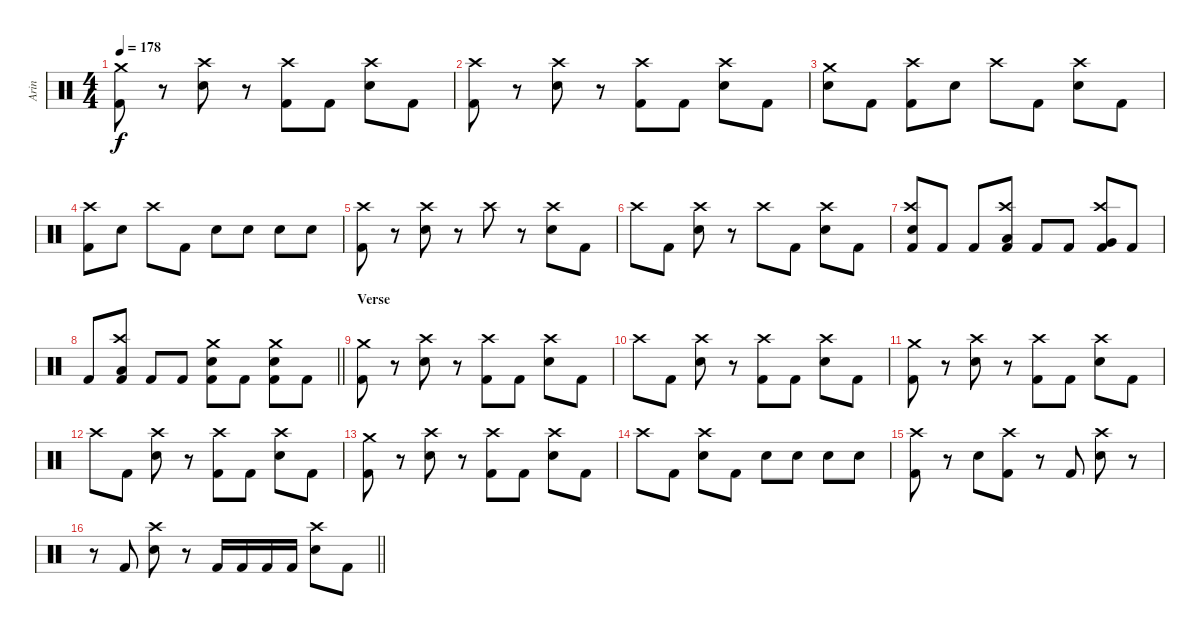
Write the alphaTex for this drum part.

\track ("Arin" "Arin") {instrument percussion}
\staff {score}
\articulation defaults
\ts (4 4)
\tempo 178
\clef neutral
\ks c
("Crash medium (hit)" "Kick (hit) 2").8{dy f} r.8 ("Crash high (hit)" "Snare (hit) 2").8 r.8 ("Crash high (hit)" "Kick (hit) 2").8 "Kick (hit) 2".8 ("Crash high (hit)" "Snare (hit) 2").8 "Kick (hit) 2".8 |
("Crash high (hit)" "Kick (hit) 2").8 r.8 ("Crash high (hit)" "Snare (hit) 2").8 r.8 ("Crash high (hit)" "Kick (hit) 2").8 "Kick (hit) 2".8 ("Crash high (hit)" "Snare (hit) 2").8 "Kick (hit) 2".8 |
("Crash medium (hit)" "Snare (hit) 2").8 "Kick (hit) 2".8 ("Crash high (hit)" "Kick (hit) 2").8 "Snare (hit) 2".8 "Crash high (hit)".8 "Kick (hit) 2".8 ("Crash high (hit)" "Snare (hit) 2").8 "Kick (hit) 2".8 |
("Crash high (hit)" "Kick (hit) 2").8 "Snare (hit) 2".8 "Crash high (hit)".8 "Kick (hit) 2".8 "Snare (hit) 2".8 "Snare (hit) 2".8 "Snare (hit) 2".8 "Snare (hit) 2".8 |
("Crash high (hit)" "Kick (hit) 2").8 r.8 ("Crash high (hit)" "Snare (hit) 2").8 r.8 "Crash high (hit)".8 r.8 ("Crash high (hit)" "Snare (hit) 2").8 "Kick (hit) 2".8 |
"Crash high (hit)".8 "Kick (hit) 2".8 ("Crash high (hit)" "Snare (hit) 2").8 r.8 "Crash high (hit)".8 "Kick (hit) 2".8 ("Crash high (hit)" "Snare (hit) 2").8 "Kick (hit) 2".8 |
("Crash high (hit)" "Snare (hit) 2" "Kick (hit) 2").8 "Kick (hit) 2".8 "Kick (hit) 2".8 ("Crash high (hit)" "Low Tom (hit)" "Kick (hit) 2").8 "Kick (hit) 2".8 "Kick (hit) 2".8 ("Crash high (hit)" "Very Low Tom (hit)" "Kick (hit) 2").8 "Kick (hit) 2".8 |
\barLineRight lightlight "Kick (hit) 2".8
("Crash high (hit)" "Low Floor Tom (hit)" "Kick (hit) 2").8 "Kick (hit) 2".8 "Kick (hit) 2".8 ("Crash medium (hit)" "Snare (hit) 2" "Kick (hit) 2").8 "Kick (hit) 2".8 ("Crash medium (hit)" "Snare (hit) 2" "Kick (hit) 2").8 "Kick (hit) 2".8 |
\section ("" "Verse")
("Crash medium (hit)" "Kick (hit) 2").8 r.8 ("Crash high (hit)" "Snare (hit) 2").8 r.8 ("Crash high (hit)" "Kick (hit) 2").8 "Kick (hit) 2".8 ("Crash high (hit)" "Snare (hit) 2").8 "Kick (hit) 2".8 |
"Crash high (hit)".8 "Kick (hit) 2".8 ("Crash high (hit)" "Snare (hit) 2").8 r.8 ("Crash high (hit)" "Kick (hit) 2").8 "Kick (hit) 2".8 ("Crash high (hit)" "Snare (hit) 2").8 "Kick (hit) 2".8 |
("Crash medium (hit)" "Kick (hit) 2").8 r.8 ("Crash high (hit)" "Snare (hit) 2").8 r.8 ("Crash high (hit)" "Kick (hit) 2").8 "Kick (hit) 2".8 ("Crash high (hit)" "Snare (hit) 2").8 "Kick (hit) 2".8 |
"Crash high (hit)".8 "Kick (hit) 2".8 ("Crash high (hit)" "Snare (hit) 2").8 r.8 ("Crash high (hit)" "Kick (hit) 2").8 "Kick (hit) 2".8 ("Crash high (hit)" "Snare (hit) 2").8 "Kick (hit) 2".8 |
("Crash medium (hit)" "Kick (hit) 2").8 r.8 ("Crash high (hit)" "Snare (hit) 2").8 r.8 ("Crash high (hit)" "Kick (hit) 2").8 "Kick (hit) 2".8 ("Crash high (hit)" "Snare (hit) 2").8 "Kick (hit) 2".8 |
"Crash high (hit)".8 "Kick (hit) 2".8 ("Crash high (hit)" "Snare (hit) 2").8 "Kick (hit) 2".8 "Snare (hit) 2".8 "Snare (hit) 2".8 "Snare (hit) 2".8 "Snare (hit) 2".8 |
("Crash high (hit)" "Kick (hit) 2").8 r.8 "Snare (hit) 2".8 ("Crash high (hit)" "Kick (hit) 2").8 r.8 "Kick (hit) 2".8 ("Crash high (hit)" "Snare (hit) 2").8 r.8 |
\barLineRight lightlight
r.8 "Kick (hit) 2".8 ("Crash high (hit)" "Snare (hit) 2").8 r.8 "Kick (hit) 2".16 "Kick (hit) 2".16 "Kick (hit) 2".16 "Kick (hit) 2".16 ("Crash high (hit)" "Snare (hit) 2").8 "Kick (hit) 2".8
